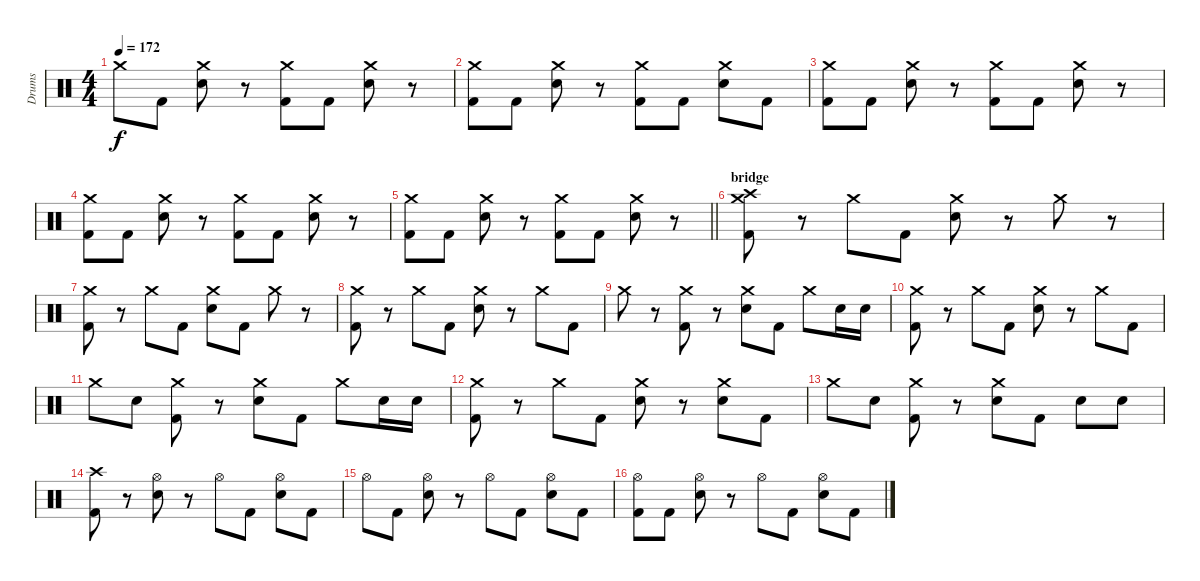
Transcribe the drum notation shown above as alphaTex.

\track ("Drums" "Drums") {instrument percussion}
\staff {score}
\articulation defaults
\ts (4 4)
\tempo 172
\clef neutral
\ks c "Crash medium (hit)".8{dy f} "Kick (hit) 2".8
("Crash medium (hit)" "Electric Snare (hit)").8 r.8 ("Crash medium (hit)" "Kick (hit) 2").8 "Kick (hit) 2".8 ("Crash medium (hit)" "Electric Snare (hit)").8 r.8 |
("Crash medium (hit)" "Kick (hit) 2").8 "Kick (hit) 2".8 ("Crash medium (hit)" "Electric Snare (hit)").8 r.8 ("Crash medium (hit)" "Kick (hit) 2").8 "Kick (hit) 2".8 ("Crash medium (hit)" "Electric Snare (hit)").8 "Kick (hit) 2".8 |
("Crash medium (hit)" "Kick (hit) 2").8 "Kick (hit) 2".8 ("Crash medium (hit)" "Electric Snare (hit)").8 r.8 ("Crash medium (hit)" "Kick (hit) 2").8 "Kick (hit) 2".8 ("Crash medium (hit)" "Electric Snare (hit)").8 r.8 |
("Crash medium (hit)" "Kick (hit) 2").8 "Kick (hit) 2".8 ("Crash medium (hit)" "Electric Snare (hit)").8 r.8 ("Crash medium (hit)" "Kick (hit) 2").8 "Kick (hit) 2".8 ("Crash medium (hit)" "Electric Snare (hit)").8 r.8 |
\barLineRight lightlight
("Crash medium (hit)" "Kick (hit) 2").8 "Kick (hit) 2".8 ("Crash medium (hit)" "Electric Snare (hit)").8 r.8 ("Crash medium (hit)" "Kick (hit) 2").8 "Kick (hit) 2".8 ("Crash medium (hit)" "Electric Snare (hit)").8 r.8 |
\section ("" "bridge")
("Crash high (hit)" "Crash medium (hit)" "Kick (hit) 2").8 r.8 "Crash medium (hit)".8 "Kick (hit) 2".8 ("Crash medium (hit)" "Electric Snare (hit)").8 r.8 "Crash medium (hit)".8 r.8 |
("Crash medium (hit)" "Kick (hit) 2").8 r.8 "Crash medium (hit)".8 "Kick (hit) 2".8 ("Crash medium (hit)" "Electric Snare (hit)").8 "Kick (hit) 2".8 "Crash medium (hit)".8 r.8 |
("Crash medium (hit)" "Kick (hit) 2").8 r.8 "Crash medium (hit)".8 "Kick (hit) 2".8 ("Crash medium (hit)" "Electric Snare (hit)").8 r.8 "Crash medium (hit)".8 "Kick (hit) 2".8 |
"Crash medium (hit)".8 r.8 ("Crash medium (hit)" "Kick (hit) 2").8 r.8 ("Crash medium (hit)" "Electric Snare (hit)").8 "Kick (hit) 2".8 "Crash medium (hit)".8 "Electric Snare (hit)".16 "Electric Snare (hit)".16 |
("Crash medium (hit)" "Kick (hit) 2").8 r.8 "Crash medium (hit)".8 "Kick (hit) 2".8 ("Crash medium (hit)" "Electric Snare (hit)").8 r.8 "Crash medium (hit)".8 "Kick (hit) 2".8 |
"Crash medium (hit)".8 "Electric Snare (hit)".8 ("Crash medium (hit)" "Kick (hit) 2").8 r.8 ("Crash medium (hit)" "Electric Snare (hit)").8 "Kick (hit) 2".8 "Crash medium (hit)".8 "Electric Snare (hit)".16 "Electric Snare (hit)".16 |
("Crash medium (hit)" "Kick (hit) 2").8 r.8 "Crash medium (hit)".8 "Kick (hit) 2".8 ("Crash medium (hit)" "Electric Snare (hit)").8 r.8 ("Crash medium (hit)" "Electric Snare (hit)").8 "Kick (hit) 2".8 |
"Crash medium (hit)".8 "Electric Snare (hit)".8 ("Crash medium (hit)" "Kick (hit) 2").8 r.8 ("Crash medium (hit)" "Electric Snare (hit)").8 "Kick (hit) 2".8 "Electric Snare (hit)".8 "Electric Snare (hit)".8 |
("Crash high (hit)" "Kick (hit) 2").8 r.8 ("Hi-Hat (open)" "Electric Snare (hit)").8 r.8 "Hi-Hat (open)".8 "Kick (hit) 2".8 ("Hi-Hat (open)" "Electric Snare (hit)").8 "Kick (hit) 2".8 |
"Hi-Hat (open)".8 "Kick (hit) 2".8 ("Hi-Hat (open)" "Electric Snare (hit)").8 r.8 "Hi-Hat (open)".8 "Kick (hit) 2".8 ("Hi-Hat (open)" "Electric Snare (hit)").8 "Kick (hit) 2".8 |
("Hi-Hat (open)" "Kick (hit) 2").8 "Kick (hit) 2".8 ("Hi-Hat (open)" "Electric Snare (hit)").8 r.8 "Hi-Hat (open)".8 "Kick (hit) 2".8 ("Hi-Hat (open)" "Electric Snare (hit)").8 "Kick (hit) 2".8
